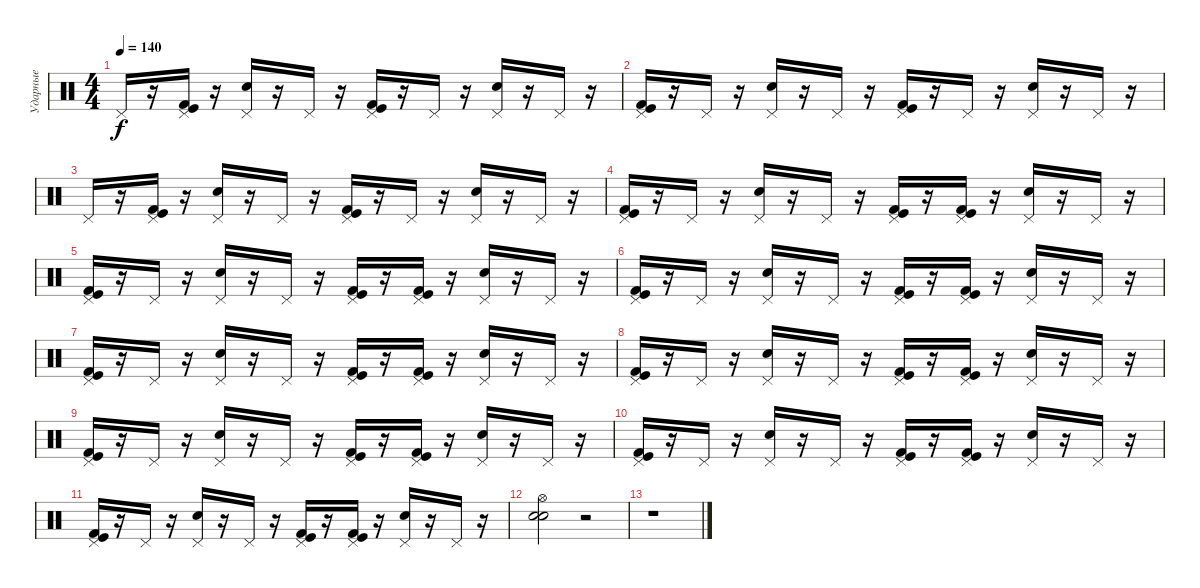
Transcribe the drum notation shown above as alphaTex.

\track ("Ударные" "Ударные") {instrument percussion}
\staff {score}
\articulation defaults
\ts (4 4)
\tempo 140
\clef neutral
\ks c "Pedal Hi-Hat (hit)".16{dy f}
r.16 ("Kick (hit) 2" "Kick (hit)" "Pedal Hi-Hat (hit)").16 r.16 ("Snare (hit) 2" "Pedal Hi-Hat (hit)").16 r.16 "Pedal Hi-Hat (hit)".16 r.16 ("Kick (hit) 2" "Kick (hit)" "Pedal Hi-Hat (hit)").16 r.16 "Pedal Hi-Hat (hit)".16 r.16 ("Snare (hit) 2" "Pedal Hi-Hat (hit)").16 r.16 "Pedal Hi-Hat (hit)".16 r.16 |
("Kick (hit) 2" "Kick (hit)" "Pedal Hi-Hat (hit)").16 r.16 "Pedal Hi-Hat (hit)".16 r.16 ("Snare (hit) 2" "Pedal Hi-Hat (hit)").16 r.16 "Pedal Hi-Hat (hit)".16 r.16 ("Kick (hit) 2" "Kick (hit)" "Pedal Hi-Hat (hit)").16 r.16 "Pedal Hi-Hat (hit)".16 r.16 ("Snare (hit) 2" "Pedal Hi-Hat (hit)").16 r.16 "Pedal Hi-Hat (hit)".16 r.16 |
"Pedal Hi-Hat (hit)".16 r.16 ("Kick (hit) 2" "Kick (hit)" "Pedal Hi-Hat (hit)").16 r.16 ("Snare (hit) 2" "Pedal Hi-Hat (hit)").16 r.16 "Pedal Hi-Hat (hit)".16 r.16 ("Kick (hit) 2" "Kick (hit)" "Pedal Hi-Hat (hit)").16 r.16 "Pedal Hi-Hat (hit)".16 r.16 ("Snare (hit) 2" "Pedal Hi-Hat (hit)").16 r.16 "Pedal Hi-Hat (hit)".16 r.16 |
("Kick (hit) 2" "Kick (hit)" "Pedal Hi-Hat (hit)").16 r.16 "Pedal Hi-Hat (hit)".16 r.16 ("Electric Snare (hit)" "Pedal Hi-Hat (hit)").16 r.16 "Pedal Hi-Hat (hit)".16 r.16 ("Kick (hit) 2" "Kick (hit)" "Pedal Hi-Hat (hit)").16 r.16 ("Kick (hit) 2" "Kick (hit)" "Pedal Hi-Hat (hit)").16 r.16 ("Electric Snare (hit)" "Pedal Hi-Hat (hit)").16 r.16 "Pedal Hi-Hat (hit)".16 r.16 |
("Kick (hit) 2" "Kick (hit)" "Pedal Hi-Hat (hit)").16 r.16 "Pedal Hi-Hat (hit)".16 r.16 ("Electric Snare (hit)" "Pedal Hi-Hat (hit)").16 r.16 "Pedal Hi-Hat (hit)".16 r.16 ("Kick (hit) 2" "Kick (hit)" "Pedal Hi-Hat (hit)").16 r.16 ("Kick (hit) 2" "Kick (hit)" "Pedal Hi-Hat (hit)").16 r.16 ("Electric Snare (hit)" "Pedal Hi-Hat (hit)").16 r.16 "Pedal Hi-Hat (hit)".16 r.16 |
("Kick (hit) 2" "Kick (hit)" "Pedal Hi-Hat (hit)").16 r.16 "Pedal Hi-Hat (hit)".16 r.16 ("Electric Snare (hit)" "Pedal Hi-Hat (hit)").16 r.16 "Pedal Hi-Hat (hit)".16 r.16 ("Kick (hit) 2" "Kick (hit)" "Pedal Hi-Hat (hit)").16 r.16 ("Kick (hit) 2" "Kick (hit)" "Pedal Hi-Hat (hit)").16 r.16 ("Electric Snare (hit)" "Pedal Hi-Hat (hit)").16 r.16 "Pedal Hi-Hat (hit)".16 r.16 |
("Kick (hit) 2" "Kick (hit)" "Pedal Hi-Hat (hit)").16 r.16 "Pedal Hi-Hat (hit)".16 r.16 ("Electric Snare (hit)" "Pedal Hi-Hat (hit)").16 r.16 "Pedal Hi-Hat (hit)".16 r.16 ("Kick (hit) 2" "Kick (hit)" "Pedal Hi-Hat (hit)").16 r.16 ("Kick (hit) 2" "Kick (hit)" "Pedal Hi-Hat (hit)").16 r.16 ("Electric Snare (hit)" "Pedal Hi-Hat (hit)").16 r.16 "Pedal Hi-Hat (hit)".16 r.16 |
("Kick (hit) 2" "Kick (hit)" "Pedal Hi-Hat (hit)").16 r.16 "Pedal Hi-Hat (hit)".16 r.16 ("Electric Snare (hit)" "Pedal Hi-Hat (hit)").16 r.16 "Pedal Hi-Hat (hit)".16 r.16 ("Kick (hit) 2" "Kick (hit)" "Pedal Hi-Hat (hit)").16 r.16 ("Kick (hit) 2" "Kick (hit)" "Pedal Hi-Hat (hit)").16 r.16 ("Electric Snare (hit)" "Pedal Hi-Hat (hit)").16 r.16 "Pedal Hi-Hat (hit)".16 r.16 |
("Kick (hit) 2" "Kick (hit)" "Pedal Hi-Hat (hit)").16 r.16 "Pedal Hi-Hat (hit)".16 r.16 ("Electric Snare (hit)" "Pedal Hi-Hat (hit)").16 r.16 "Pedal Hi-Hat (hit)".16 r.16 ("Kick (hit) 2" "Kick (hit)" "Pedal Hi-Hat (hit)").16 r.16 ("Kick (hit) 2" "Kick (hit)" "Pedal Hi-Hat (hit)").16 r.16 ("Electric Snare (hit)" "Pedal Hi-Hat (hit)").16 r.16 "Pedal Hi-Hat (hit)".16 r.16 |
("Kick (hit) 2" "Kick (hit)" "Pedal Hi-Hat (hit)").16 r.16 "Pedal Hi-Hat (hit)".16 r.16 ("Electric Snare (hit)" "Pedal Hi-Hat (hit)").16 r.16 "Pedal Hi-Hat (hit)".16 r.16 ("Kick (hit) 2" "Kick (hit)" "Pedal Hi-Hat (hit)").16 r.16 ("Kick (hit) 2" "Kick (hit)" "Pedal Hi-Hat (hit)").16 r.16 ("Electric Snare (hit)" "Pedal Hi-Hat (hit)").16 r.16 "Pedal Hi-Hat (hit)".16 r.16 |
("Kick (hit) 2" "Kick (hit)" "Pedal Hi-Hat (hit)").16 r.16 "Pedal Hi-Hat (hit)".16 r.16 ("Electric Snare (hit)" "Pedal Hi-Hat (hit)").16 r.16 "Pedal Hi-Hat (hit)".16 r.16 ("Kick (hit) 2" "Kick (hit)" "Pedal Hi-Hat (hit)").16 r.16 ("Kick (hit) 2" "Kick (hit)" "Pedal Hi-Hat (hit)").16 r.16 ("Electric Snare (hit)" "Pedal Hi-Hat (hit)").16 r.16 "Pedal Hi-Hat (hit)".16 r.16 |
("Snare (hit) 2" "Electric Snare (hit)" "Hi-Hat (open)").2 r.2 |
r.1
